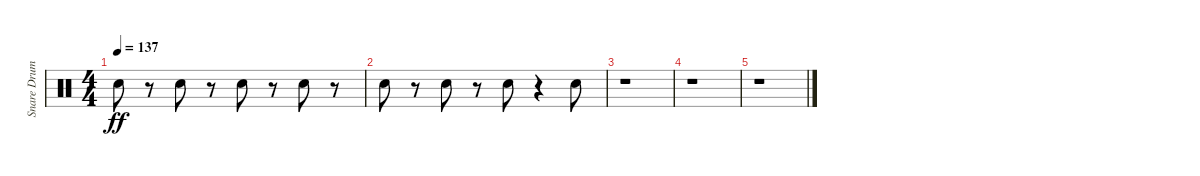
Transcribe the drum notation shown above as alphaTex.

\track ("Snare Drum" "Snare Drum") {instrument percussion}
\staff {score}
\articulation defaults
\ts (4 4)
\tempo 137
\clef neutral
\ks c "Snare (hit) 2".8{dy ff}
r.8 "Snare (hit) 2".8 r.8 "Snare (hit) 2".8 r.8 "Snare (hit) 2".8 r.8 |
"Snare (hit) 2".8 r.8 "Snare (hit) 2".8 r.8 "Snare (hit) 2".8 r.4 "Snare (hit) 2".8 |
r.1 |
r.1 |
r.1
